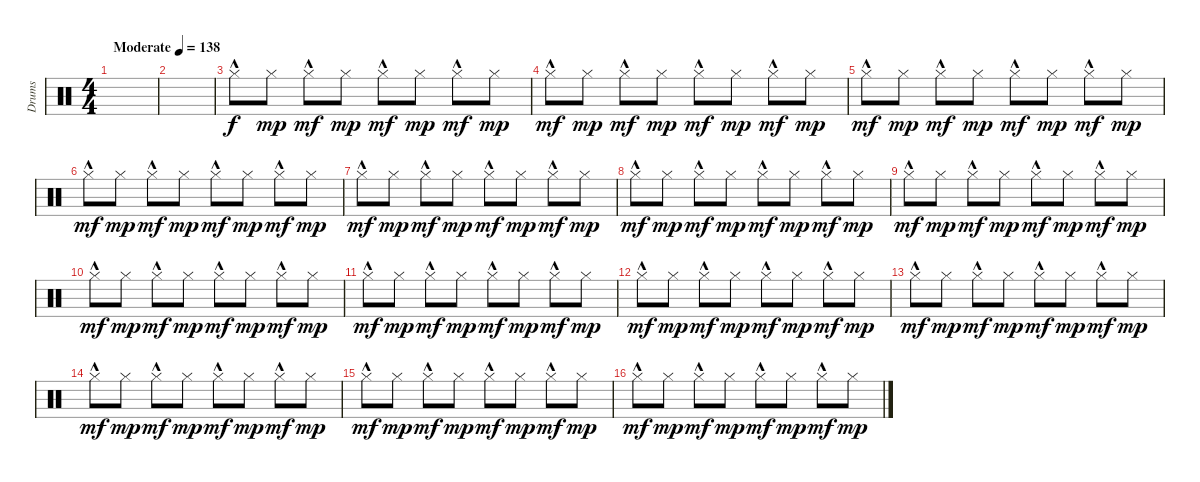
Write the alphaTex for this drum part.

\track ("Drums" "Drums") {instrument percussion}
\staff {score}
\articulation defaults
\ts (4 4)
\tempo (138 "Moderate")
\clef neutral
\ks c
|
|
"Hi-Hat (closed)"{hac}.8 "Hi-Hat (closed)".8{dy mp} "Hi-Hat (closed)"{hac}.8{dy mf} "Hi-Hat (closed)".8{dy mp} "Hi-Hat (closed)"{hac}.8{dy mf} "Hi-Hat (closed)".8{dy mp} "Hi-Hat (closed)"{hac}.8{dy mf} "Hi-Hat (closed)".8{dy mp} |
"Hi-Hat (closed)"{hac}.8{dy mf} "Hi-Hat (closed)".8{dy mp} "Hi-Hat (closed)"{hac}.8{dy mf} "Hi-Hat (closed)".8{dy mp} "Hi-Hat (closed)"{hac}.8{dy mf} "Hi-Hat (closed)".8{dy mp} "Hi-Hat (closed)"{hac}.8{dy mf} "Hi-Hat (closed)".8{dy mp} |
"Hi-Hat (closed)"{hac}.8{dy mf} "Hi-Hat (closed)".8{dy mp} "Hi-Hat (closed)"{hac}.8{dy mf} "Hi-Hat (closed)".8{dy mp} "Hi-Hat (closed)"{hac}.8{dy mf} "Hi-Hat (closed)".8{dy mp} "Hi-Hat (closed)"{hac}.8{dy mf} "Hi-Hat (closed)".8{dy mp} |
"Hi-Hat (closed)"{hac}.8{dy mf} "Hi-Hat (closed)".8{dy mp} "Hi-Hat (closed)"{hac}.8{dy mf} "Hi-Hat (closed)".8{dy mp} "Hi-Hat (closed)"{hac}.8{dy mf} "Hi-Hat (closed)".8{dy mp} "Hi-Hat (closed)"{hac}.8{dy mf} "Hi-Hat (closed)".8{dy mp} |
"Hi-Hat (closed)"{hac}.8{dy mf} "Hi-Hat (closed)".8{dy mp} "Hi-Hat (closed)"{hac}.8{dy mf} "Hi-Hat (closed)".8{dy mp} "Hi-Hat (closed)"{hac}.8{dy mf} "Hi-Hat (closed)".8{dy mp} "Hi-Hat (closed)"{hac}.8{dy mf} "Hi-Hat (closed)".8{dy mp} |
"Hi-Hat (closed)"{hac}.8{dy mf} "Hi-Hat (closed)".8{dy mp} "Hi-Hat (closed)"{hac}.8{dy mf} "Hi-Hat (closed)".8{dy mp} "Hi-Hat (closed)"{hac}.8{dy mf} "Hi-Hat (closed)".8{dy mp} "Hi-Hat (closed)"{hac}.8{dy mf} "Hi-Hat (closed)".8{dy mp} |
"Hi-Hat (closed)"{hac}.8{dy mf} "Hi-Hat (closed)".8{dy mp} "Hi-Hat (closed)"{hac}.8{dy mf} "Hi-Hat (closed)".8{dy mp} "Hi-Hat (closed)"{hac}.8{dy mf} "Hi-Hat (closed)".8{dy mp} "Hi-Hat (closed)"{hac}.8{dy mf} "Hi-Hat (closed)".8{dy mp} |
"Hi-Hat (closed)"{hac}.8{dy mf} "Hi-Hat (closed)".8{dy mp} "Hi-Hat (closed)"{hac}.8{dy mf} "Hi-Hat (closed)".8{dy mp} "Hi-Hat (closed)"{hac}.8{dy mf} "Hi-Hat (closed)".8{dy mp} "Hi-Hat (closed)"{hac}.8{dy mf} "Hi-Hat (closed)".8{dy mp} |
"Hi-Hat (closed)"{hac}.8{dy mf} "Hi-Hat (closed)".8{dy mp} "Hi-Hat (closed)"{hac}.8{dy mf} "Hi-Hat (closed)".8{dy mp} "Hi-Hat (closed)"{hac}.8{dy mf} "Hi-Hat (closed)".8{dy mp} "Hi-Hat (closed)"{hac}.8{dy mf} "Hi-Hat (closed)".8{dy mp} |
"Hi-Hat (closed)"{hac}.8{dy mf} "Hi-Hat (closed)".8{dy mp} "Hi-Hat (closed)"{hac}.8{dy mf} "Hi-Hat (closed)".8{dy mp} "Hi-Hat (closed)"{hac}.8{dy mf} "Hi-Hat (closed)".8{dy mp} "Hi-Hat (closed)"{hac}.8{dy mf} "Hi-Hat (closed)".8{dy mp} |
"Hi-Hat (closed)"{hac}.8{dy mf} "Hi-Hat (closed)".8{dy mp} "Hi-Hat (closed)"{hac}.8{dy mf} "Hi-Hat (closed)".8{dy mp} "Hi-Hat (closed)"{hac}.8{dy mf} "Hi-Hat (closed)".8{dy mp} "Hi-Hat (closed)"{hac}.8{dy mf} "Hi-Hat (closed)".8{dy mp} |
"Hi-Hat (closed)"{hac}.8{dy mf} "Hi-Hat (closed)".8{dy mp} "Hi-Hat (closed)"{hac}.8{dy mf} "Hi-Hat (closed)".8{dy mp} "Hi-Hat (closed)"{hac}.8{dy mf} "Hi-Hat (closed)".8{dy mp} "Hi-Hat (closed)"{hac}.8{dy mf} "Hi-Hat (closed)".8{dy mp} |
"Hi-Hat (closed)"{hac}.8{dy mf} "Hi-Hat (closed)".8{dy mp} "Hi-Hat (closed)"{hac}.8{dy mf} "Hi-Hat (closed)".8{dy mp} "Hi-Hat (closed)"{hac}.8{dy mf} "Hi-Hat (closed)".8{dy mp} "Hi-Hat (closed)"{hac}.8{dy mf} "Hi-Hat (closed)".8{dy mp} |
"Hi-Hat (closed)"{hac}.8{dy mf} "Hi-Hat (closed)".8{dy mp} "Hi-Hat (closed)"{hac}.8{dy mf} "Hi-Hat (closed)".8{dy mp} "Hi-Hat (closed)"{hac}.8{dy mf} "Hi-Hat (closed)".8{dy mp} "Hi-Hat (closed)"{hac}.8{dy mf} "Hi-Hat (closed)".8{dy mp}
